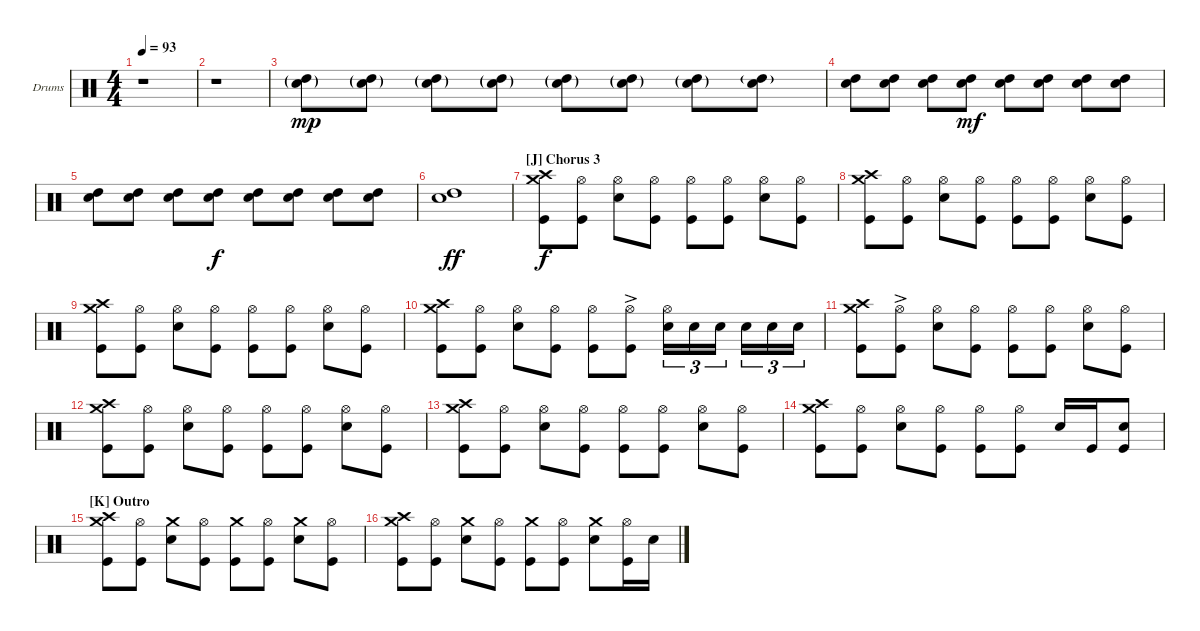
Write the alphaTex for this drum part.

\bracketExtendMode groupsimilarinstruments
\firstSystemTrackNameOrientation horizontal
\otherSystemsTrackNameOrientation horizontal
\track ("Drums (Tony Palermo)" "Drums") {instrument percussion}
\staff {score}
\articulation defaults
\ts (4 4)
\tempo 93
\clef neutral
\ks c
r.1{dy f} |
r.1 |
("Snare (hit) 2"{g} "High Tom (hit)"{g}).8{dy mp} ("Snare (hit) 2"{g} "High Tom (hit)"{g}).8 ("Snare (hit) 2"{g} "High Tom (hit)"{g}).8 ("Snare (hit) 2"{g} "High Tom (hit)"{g}).8 ("Snare (hit) 2"{g} "High Tom (hit)"{g}).8 ("Snare (hit) 2"{g} "High Tom (hit)"{g}).8 ("Snare (hit) 2"{g} "High Tom (hit)"{g}).8 ("Snare (hit) 2" "High Tom (hit)"{g}).8 |
("Snare (hit) 2" "High Tom (hit)").8 ("Snare (hit) 2" "High Tom (hit)").8 ("Snare (hit) 2" "High Tom (hit)").8 ("Snare (hit) 2" "High Tom (hit)").8{dy mf} ("Snare (hit) 2" "High Tom (hit)").8 ("Snare (hit) 2" "High Tom (hit)").8 ("Snare (hit) 2" "High Tom (hit)").8 ("Snare (hit) 2" "High Tom (hit)").8 |
("Snare (hit) 2" "High Tom (hit)").8 ("Snare (hit) 2" "High Tom (hit)").8 ("Snare (hit) 2" "High Tom (hit)").8 ("Snare (hit) 2" "High Tom (hit)").8{dy f} ("Snare (hit) 2" "High Tom (hit)").8 ("Snare (hit) 2" "High Tom (hit)").8 ("Snare (hit) 2" "High Tom (hit)").8 ("Snare (hit) 2" "High Tom (hit)").8 |
("Snare (hit) 2" "High Tom (hit)").1{dy ff} |
\section ("J" "Chorus 3")
("Crash medium (hit)" "Crash high (hit)" "Kick (hit)").8{dy f} ("Hi-Hat (open)" "Kick (hit)").8 ("Hi-Hat (open)" "Snare (hit) 2").8 ("Hi-Hat (open)" "Kick (hit)").8 ("Hi-Hat (open)" "Kick (hit)").8 ("Hi-Hat (open)" "Kick (hit)").8 ("Hi-Hat (open)" "Snare (hit) 2").8 ("Hi-Hat (open)" "Kick (hit)").8 |
("Crash medium (hit)" "Crash high (hit)" "Kick (hit)").8 ("Hi-Hat (open)" "Kick (hit)").8 ("Hi-Hat (open)" "Snare (hit) 2").8 ("Hi-Hat (open)" "Kick (hit)").8 ("Hi-Hat (open)" "Kick (hit)").8 ("Hi-Hat (open)" "Kick (hit)").8 ("Hi-Hat (open)" "Snare (hit) 2").8 ("Hi-Hat (open)" "Kick (hit)").8 |
("Crash medium (hit)" "Crash high (hit)" "Kick (hit)").8 ("Hi-Hat (open)" "Kick (hit)").8 ("Hi-Hat (open)" "Snare (hit) 2").8 ("Hi-Hat (open)" "Kick (hit)").8 ("Hi-Hat (open)" "Kick (hit)").8 ("Hi-Hat (open)" "Kick (hit)").8 ("Hi-Hat (open)" "Snare (hit) 2").8 ("Hi-Hat (open)" "Kick (hit)").8 |
("Crash medium (hit)" "Crash high (hit)" "Kick (hit)").8 ("Hi-Hat (open)" "Kick (hit)").8 ("Hi-Hat (open)" "Snare (hit) 2").8 ("Hi-Hat (open)" "Kick (hit)").8 ("Hi-Hat (open)" "Kick (hit)").8 ("Hi-Hat (open)"{ac} "Kick (hit)").8 ("Hi-Hat (open)" "Snare (hit) 2").16{tu (3 2)} "Snare (hit) 2".16{tu (3 2)} "Snare (hit) 2".16{tu (3 2)} "Snare (hit) 2".16{tu (3 2)} "Snare (hit) 2".16{tu (3 2)} "Snare (hit) 2".16{tu (3 2)} |
("Crash medium (hit)" "Crash high (hit)" "Kick (hit)").8 ("Hi-Hat (open)"{ac} "Kick (hit)").8 ("Hi-Hat (open)" "Snare (hit) 2").8 ("Hi-Hat (open)" "Kick (hit)").8 ("Hi-Hat (open)" "Kick (hit)").8 ("Hi-Hat (open)" "Kick (hit)").8 ("Hi-Hat (open)" "Snare (hit) 2").8 ("Hi-Hat (open)" "Kick (hit)").8 |
("Crash medium (hit)" "Crash high (hit)" "Kick (hit)").8 ("Hi-Hat (open)" "Kick (hit)").8 ("Hi-Hat (open)" "Snare (hit) 2").8 ("Hi-Hat (open)" "Kick (hit)").8 ("Hi-Hat (open)" "Kick (hit)").8 ("Hi-Hat (open)" "Kick (hit)").8 ("Hi-Hat (open)" "Snare (hit) 2").8 ("Hi-Hat (open)" "Kick (hit)").8 |
("Crash medium (hit)" "Crash high (hit)" "Kick (hit)").8 ("Hi-Hat (open)" "Kick (hit)").8 ("Hi-Hat (open)" "Snare (hit) 2").8 ("Hi-Hat (open)" "Kick (hit)").8 ("Hi-Hat (open)" "Kick (hit)").8 ("Hi-Hat (open)" "Kick (hit)").8 ("Hi-Hat (open)" "Snare (hit) 2").8 ("Hi-Hat (open)" "Kick (hit)").8 |
("Crash medium (hit)" "Crash high (hit)" "Kick (hit)").8 ("Hi-Hat (open)" "Kick (hit)").8 ("Hi-Hat (open)" "Snare (hit) 2").8 ("Hi-Hat (open)" "Kick (hit)").8 ("Hi-Hat (open)" "Kick (hit)").8 ("Hi-Hat (open)" "Kick (hit)").8 "Snare (hit) 2".16 "Kick (hit)".16 ("Snare (hit) 2" "Kick (hit)").8 |
\section ("K" "Outro")
("Crash medium (hit)" "Crash high (hit)" "Kick (hit)").8 ("Hi-Hat (open)" "Kick (hit)").8 ("Crash medium (hit)" "Snare (hit) 2").8 ("Hi-Hat (open)" "Kick (hit)").8 ("Crash medium (hit)" "Kick (hit)").8 ("Hi-Hat (open)" "Kick (hit)").8 ("Crash medium (hit)" "Snare (hit) 2").8 ("Hi-Hat (open)" "Kick (hit)").8 |
("Crash medium (hit)" "Crash high (hit)" "Kick (hit)").8 ("Hi-Hat (open)" "Kick (hit)").8 ("Crash medium (hit)" "Snare (hit) 2").8 ("Hi-Hat (open)" "Kick (hit)").8 ("Crash medium (hit)" "Kick (hit)").8 ("Hi-Hat (open)" "Kick (hit)").8 ("Crash medium (hit)" "Snare (hit) 2").8 ("Hi-Hat (open)" "Kick (hit)").16 "Snare (hit) 2".16
